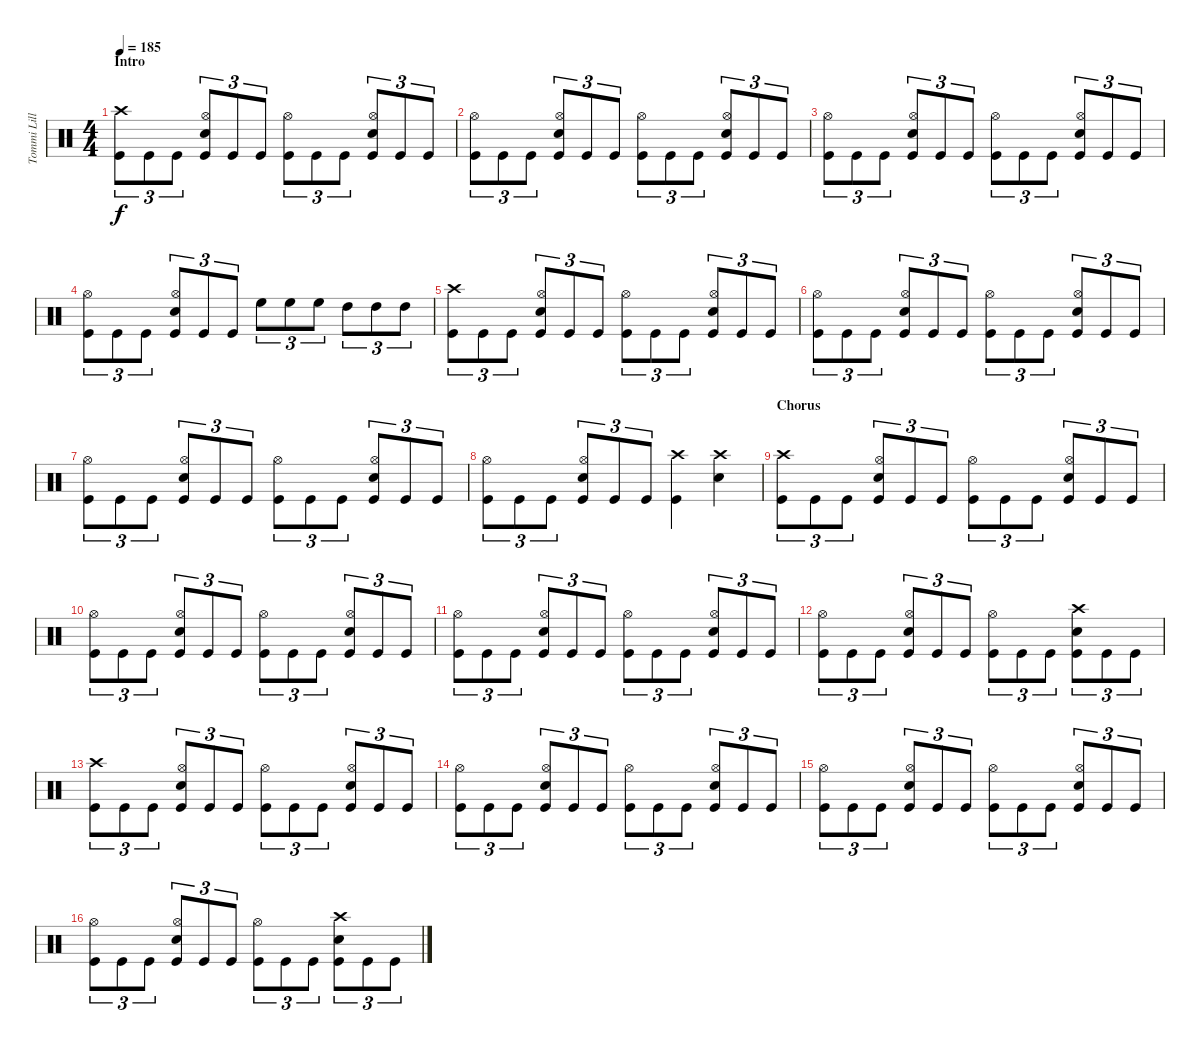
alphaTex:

\track ("Tommi Lillman" "Tommi Lill") {instrument percussion}
\staff {score}
\articulation defaults
\ts (4 4)
\section ("" "Intro")
\tempo 185
\clef neutral
\ks c
("Crash high (hit)" "Kick (hit)").8{tu (3 2) dy f} "Kick (hit)".8{tu (3 2)} "Kick (hit)".8{tu (3 2)} ("Hi-Hat (open)" "Snare (hit) 2" "Kick (hit)").8{tu (3 2)} "Kick (hit)".8{tu (3 2)} "Kick (hit)".8{tu (3 2)} ("Hi-Hat (open)" "Kick (hit)").8{tu (3 2)} "Kick (hit)".8{tu (3 2)} "Kick (hit)".8{tu (3 2)} ("Hi-Hat (open)" "Snare (hit) 2" "Kick (hit)").8{tu (3 2)} "Kick (hit)".8{tu (3 2)} "Kick (hit)".8{tu (3 2)} |
("Hi-Hat (open)" "Kick (hit)").8{tu (3 2)} "Kick (hit)".8{tu (3 2)} "Kick (hit)".8{tu (3 2)} ("Hi-Hat (open)" "Snare (hit) 2" "Kick (hit)").8{tu (3 2)} "Kick (hit)".8{tu (3 2)} "Kick (hit)".8{tu (3 2)} ("Hi-Hat (open)" "Kick (hit)").8{tu (3 2)} "Kick (hit)".8{tu (3 2)} "Kick (hit)".8{tu (3 2)} ("Hi-Hat (open)" "Snare (hit) 2" "Kick (hit)").8{tu (3 2)} "Kick (hit)".8{tu (3 2)} "Kick (hit)".8{tu (3 2)} |
("Hi-Hat (open)" "Kick (hit)").8{tu (3 2)} "Kick (hit)".8{tu (3 2)} "Kick (hit)".8{tu (3 2)} ("Hi-Hat (open)" "Snare (hit) 2" "Kick (hit)").8{tu (3 2)} "Kick (hit)".8{tu (3 2)} "Kick (hit)".8{tu (3 2)} ("Hi-Hat (open)" "Kick (hit)").8{tu (3 2)} "Kick (hit)".8{tu (3 2)} "Kick (hit)".8{tu (3 2)} ("Hi-Hat (open)" "Snare (hit) 2" "Kick (hit)").8{tu (3 2)} "Kick (hit)".8{tu (3 2)} "Kick (hit)".8{tu (3 2)} |
("Hi-Hat (open)" "Kick (hit)").8{tu (3 2)} "Kick (hit)".8{tu (3 2)} "Kick (hit)".8{tu (3 2)} ("Hi-Hat (open)" "Snare (hit) 2" "Kick (hit)").8{tu (3 2)} "Kick (hit)".8{tu (3 2)} "Kick (hit)".8{tu (3 2)} "High Floor Tom (hit)".8{tu (3 2)} "High Floor Tom (hit)".8{tu (3 2)} "High Floor Tom (hit)".8{tu (3 2)} "High Tom (hit)".8{tu (3 2)} "High Tom (hit)".8{tu (3 2)} "High Tom (hit)".8{tu (3 2)} |
("Crash high (hit)" "Kick (hit)").8{tu (3 2)} "Kick (hit)".8{tu (3 2)} "Kick (hit)".8{tu (3 2)} ("Hi-Hat (open)" "Snare (hit) 2" "Kick (hit)").8{tu (3 2)} "Kick (hit)".8{tu (3 2)} "Kick (hit)".8{tu (3 2)} ("Hi-Hat (open)" "Kick (hit)").8{tu (3 2)} "Kick (hit)".8{tu (3 2)} "Kick (hit)".8{tu (3 2)} ("Hi-Hat (open)" "Snare (hit) 2" "Kick (hit)").8{tu (3 2)} "Kick (hit)".8{tu (3 2)} "Kick (hit)".8{tu (3 2)} |
("Hi-Hat (open)" "Kick (hit)").8{tu (3 2)} "Kick (hit)".8{tu (3 2)} "Kick (hit)".8{tu (3 2)} ("Hi-Hat (open)" "Snare (hit) 2" "Kick (hit)").8{tu (3 2)} "Kick (hit)".8{tu (3 2)} "Kick (hit)".8{tu (3 2)} ("Hi-Hat (open)" "Kick (hit)").8{tu (3 2)} "Kick (hit)".8{tu (3 2)} "Kick (hit)".8{tu (3 2)} ("Hi-Hat (open)" "Snare (hit) 2" "Kick (hit)").8{tu (3 2)} "Kick (hit)".8{tu (3 2)} "Kick (hit)".8{tu (3 2)} |
("Hi-Hat (open)" "Kick (hit)").8{tu (3 2)} "Kick (hit)".8{tu (3 2)} "Kick (hit)".8{tu (3 2)} ("Hi-Hat (open)" "Snare (hit) 2" "Kick (hit)").8{tu (3 2)} "Kick (hit)".8{tu (3 2)} "Kick (hit)".8{tu (3 2)} ("Hi-Hat (open)" "Kick (hit)").8{tu (3 2)} "Kick (hit)".8{tu (3 2)} "Kick (hit)".8{tu (3 2)} ("Hi-Hat (open)" "Snare (hit) 2" "Kick (hit)").8{tu (3 2)} "Kick (hit)".8{tu (3 2)} "Kick (hit)".8{tu (3 2)} |
("Hi-Hat (open)" "Kick (hit)").8{tu (3 2)} "Kick (hit)".8{tu (3 2)} "Kick (hit)".8{tu (3 2)} ("Hi-Hat (open)" "Snare (hit) 2" "Kick (hit)").8{tu (3 2)} "Kick (hit)".8{tu (3 2)} "Kick (hit)".8{tu (3 2)} ("Crash high (hit)" "Kick (hit)").4 ("Crash high (hit)" "Snare (hit) 2").4 |
\section ("" "Chorus")
("Crash high (hit)" "Kick (hit)").8{tu (3 2)} "Kick (hit)".8{tu (3 2)} "Kick (hit)".8{tu (3 2)} ("Hi-Hat (open)" "Snare (hit) 2" "Kick (hit)").8{tu (3 2)} "Kick (hit)".8{tu (3 2)} "Kick (hit)".8{tu (3 2)} ("Hi-Hat (open)" "Kick (hit)").8{tu (3 2)} "Kick (hit)".8{tu (3 2)} "Kick (hit)".8{tu (3 2)} ("Hi-Hat (open)" "Snare (hit) 2" "Kick (hit)").8{tu (3 2)} "Kick (hit)".8{tu (3 2)} "Kick (hit)".8{tu (3 2)} |
("Hi-Hat (open)" "Kick (hit)").8{tu (3 2)} "Kick (hit)".8{tu (3 2)} "Kick (hit)".8{tu (3 2)} ("Hi-Hat (open)" "Snare (hit) 2" "Kick (hit)").8{tu (3 2)} "Kick (hit)".8{tu (3 2)} "Kick (hit)".8{tu (3 2)} ("Hi-Hat (open)" "Kick (hit)").8{tu (3 2)} "Kick (hit)".8{tu (3 2)} "Kick (hit)".8{tu (3 2)} ("Hi-Hat (open)" "Snare (hit) 2" "Kick (hit)").8{tu (3 2)} "Kick (hit)".8{tu (3 2)} "Kick (hit)".8{tu (3 2)} |
("Hi-Hat (open)" "Kick (hit)").8{tu (3 2)} "Kick (hit)".8{tu (3 2)} "Kick (hit)".8{tu (3 2)} ("Hi-Hat (open)" "Snare (hit) 2" "Kick (hit)").8{tu (3 2)} "Kick (hit)".8{tu (3 2)} "Kick (hit)".8{tu (3 2)} ("Hi-Hat (open)" "Kick (hit)").8{tu (3 2)} "Kick (hit)".8{tu (3 2)} "Kick (hit)".8{tu (3 2)} ("Hi-Hat (open)" "Snare (hit) 2" "Kick (hit)").8{tu (3 2)} "Kick (hit)".8{tu (3 2)} "Kick (hit)".8{tu (3 2)} |
("Hi-Hat (open)" "Kick (hit)").8{tu (3 2)} "Kick (hit)".8{tu (3 2)} "Kick (hit)".8{tu (3 2)} ("Hi-Hat (open)" "Snare (hit) 2" "Kick (hit)").8{tu (3 2)} "Kick (hit)".8{tu (3 2)} "Kick (hit)".8{tu (3 2)} ("Hi-Hat (open)" "Kick (hit)").8{tu (3 2)} "Kick (hit)".8{tu (3 2)} "Kick (hit)".8{tu (3 2)} ("Crash high (hit)" "Snare (hit) 2" "Kick (hit)").8{tu (3 2)} "Kick (hit)".8{tu (3 2)} "Kick (hit)".8{tu (3 2)} |
("Crash high (hit)" "Kick (hit)").8{tu (3 2)} "Kick (hit)".8{tu (3 2)} "Kick (hit)".8{tu (3 2)} ("Hi-Hat (open)" "Snare (hit) 2" "Kick (hit)").8{tu (3 2)} "Kick (hit)".8{tu (3 2)} "Kick (hit)".8{tu (3 2)} ("Hi-Hat (open)" "Kick (hit)").8{tu (3 2)} "Kick (hit)".8{tu (3 2)} "Kick (hit)".8{tu (3 2)} ("Hi-Hat (open)" "Snare (hit) 2" "Kick (hit)").8{tu (3 2)} "Kick (hit)".8{tu (3 2)} "Kick (hit)".8{tu (3 2)} |
("Hi-Hat (open)" "Kick (hit)").8{tu (3 2)} "Kick (hit)".8{tu (3 2)} "Kick (hit)".8{tu (3 2)} ("Hi-Hat (open)" "Snare (hit) 2" "Kick (hit)").8{tu (3 2)} "Kick (hit)".8{tu (3 2)} "Kick (hit)".8{tu (3 2)} ("Hi-Hat (open)" "Kick (hit)").8{tu (3 2)} "Kick (hit)".8{tu (3 2)} "Kick (hit)".8{tu (3 2)} ("Hi-Hat (open)" "Snare (hit) 2" "Kick (hit)").8{tu (3 2)} "Kick (hit)".8{tu (3 2)} "Kick (hit)".8{tu (3 2)} |
("Hi-Hat (open)" "Kick (hit)").8{tu (3 2)} "Kick (hit)".8{tu (3 2)} "Kick (hit)".8{tu (3 2)} ("Hi-Hat (open)" "Snare (hit) 2" "Kick (hit)").8{tu (3 2)} "Kick (hit)".8{tu (3 2)} "Kick (hit)".8{tu (3 2)} ("Hi-Hat (open)" "Kick (hit)").8{tu (3 2)} "Kick (hit)".8{tu (3 2)} "Kick (hit)".8{tu (3 2)} ("Hi-Hat (open)" "Snare (hit) 2" "Kick (hit)").8{tu (3 2)} "Kick (hit)".8{tu (3 2)} "Kick (hit)".8{tu (3 2)} |
("Hi-Hat (open)" "Kick (hit)").8{tu (3 2)} "Kick (hit)".8{tu (3 2)} "Kick (hit)".8{tu (3 2)} ("Hi-Hat (open)" "Snare (hit) 2" "Kick (hit)").8{tu (3 2)} "Kick (hit)".8{tu (3 2)} "Kick (hit)".8{tu (3 2)} ("Hi-Hat (open)" "Kick (hit)").8{tu (3 2)} "Kick (hit)".8{tu (3 2)} "Kick (hit)".8{tu (3 2)} ("Crash high (hit)" "Snare (hit) 2" "Kick (hit)").8{tu (3 2)} "Kick (hit)".8{tu (3 2)} "Kick (hit)".8{tu (3 2)}
